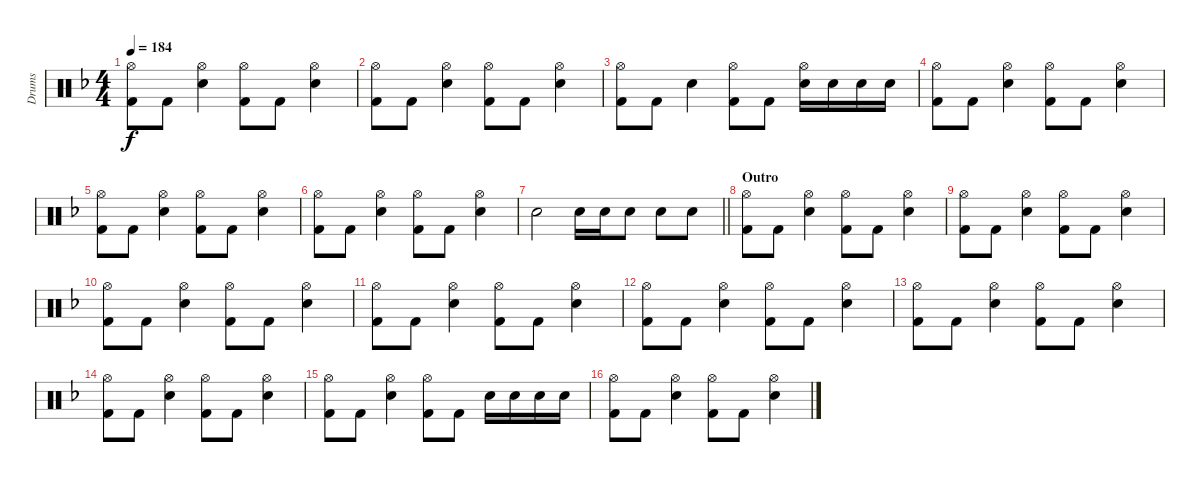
\track ("Drums" "Drums") {instrument percussion}
\staff {score}
\articulation defaults
\ts (4 4)
\tempo 184
\clef neutral
\ks f
("Hi-Hat (open)" "Kick (hit) 2").8{dy f} "Kick (hit) 2".8 ("Electric Snare (hit)" "Hi-Hat (open)").4 ("Hi-Hat (open)" "Kick (hit) 2").8 "Kick (hit) 2".8 ("Electric Snare (hit)" "Hi-Hat (open)").4 |
("Hi-Hat (open)" "Kick (hit) 2").8 "Kick (hit) 2".8 ("Electric Snare (hit)" "Hi-Hat (open)").4 ("Hi-Hat (open)" "Kick (hit) 2").8 "Kick (hit) 2".8 ("Electric Snare (hit)" "Hi-Hat (open)").4 |
("Hi-Hat (open)" "Kick (hit) 2").8 "Kick (hit) 2".8 "Electric Snare (hit)".4 ("Hi-Hat (open)" "Kick (hit) 2").8 "Kick (hit) 2".8 ("Electric Snare (hit)" "Hi-Hat (open)").16 "Electric Snare (hit)".16 "Electric Snare (hit)".16 "Electric Snare (hit)".16 |
("Hi-Hat (open)" "Kick (hit) 2").8 "Kick (hit) 2".8 ("Electric Snare (hit)" "Hi-Hat (open)").4 ("Hi-Hat (open)" "Kick (hit) 2").8 "Kick (hit) 2".8 ("Electric Snare (hit)" "Hi-Hat (open)").4 |
("Hi-Hat (open)" "Kick (hit) 2").8 "Kick (hit) 2".8 ("Electric Snare (hit)" "Hi-Hat (open)").4 ("Hi-Hat (open)" "Kick (hit) 2").8 "Kick (hit) 2".8 ("Electric Snare (hit)" "Hi-Hat (open)").4 |
("Hi-Hat (open)" "Kick (hit) 2").8 "Kick (hit) 2".8 ("Electric Snare (hit)" "Hi-Hat (open)").4 ("Hi-Hat (open)" "Kick (hit) 2").8 "Kick (hit) 2".8 ("Electric Snare (hit)" "Hi-Hat (open)").4 |
\barLineRight lightlight "Electric Snare (hit)".2 "Electric Snare (hit)".16 "Electric Snare (hit)".16 "Electric Snare (hit)".8 "Electric Snare (hit)".8 "Electric Snare (hit)".8
|
\section ("" "Outro")
("Hi-Hat (open)" "Kick (hit) 2").8 "Kick (hit) 2".8 ("Electric Snare (hit)" "Hi-Hat (open)").4 ("Hi-Hat (open)" "Kick (hit) 2").8 "Kick (hit) 2".8 ("Electric Snare (hit)" "Hi-Hat (open)").4 |
("Hi-Hat (open)" "Kick (hit) 2").8 "Kick (hit) 2".8 ("Electric Snare (hit)" "Hi-Hat (open)").4 ("Hi-Hat (open)" "Kick (hit) 2").8 "Kick (hit) 2".8 ("Electric Snare (hit)" "Hi-Hat (open)").4 |
("Hi-Hat (open)" "Kick (hit) 2").8 "Kick (hit) 2".8 ("Electric Snare (hit)" "Hi-Hat (open)").4 ("Hi-Hat (open)" "Kick (hit) 2").8 "Kick (hit) 2".8 ("Electric Snare (hit)" "Hi-Hat (open)").4 |
("Hi-Hat (open)" "Kick (hit) 2").8 "Kick (hit) 2".8 ("Electric Snare (hit)" "Hi-Hat (open)").4 ("Hi-Hat (open)" "Kick (hit) 2").8 "Kick (hit) 2".8 ("Electric Snare (hit)" "Hi-Hat (open)").4 |
("Hi-Hat (open)" "Kick (hit) 2").8 "Kick (hit) 2".8 ("Electric Snare (hit)" "Hi-Hat (open)").4 ("Hi-Hat (open)" "Kick (hit) 2").8 "Kick (hit) 2".8 ("Electric Snare (hit)" "Hi-Hat (open)").4 |
("Hi-Hat (open)" "Kick (hit) 2").8 "Kick (hit) 2".8 ("Electric Snare (hit)" "Hi-Hat (open)").4 ("Hi-Hat (open)" "Kick (hit) 2").8 "Kick (hit) 2".8 ("Electric Snare (hit)" "Hi-Hat (open)").4 |
("Hi-Hat (open)" "Kick (hit) 2").8 "Kick (hit) 2".8 ("Electric Snare (hit)" "Hi-Hat (open)").4 ("Hi-Hat (open)" "Kick (hit) 2").8 "Kick (hit) 2".8 ("Electric Snare (hit)" "Hi-Hat (open)").4 |
("Hi-Hat (open)" "Kick (hit) 2").8 "Kick (hit) 2".8 ("Electric Snare (hit)" "Hi-Hat (open)").4 ("Hi-Hat (open)" "Kick (hit) 2").8 "Kick (hit) 2".8 "Electric Snare (hit)".16 "Electric Snare (hit)".16 "Electric Snare (hit)".16 "Electric Snare (hit)".16 |
("Hi-Hat (open)" "Kick (hit) 2").8 "Kick (hit) 2".8 ("Electric Snare (hit)" "Hi-Hat (open)").4 ("Hi-Hat (open)" "Kick (hit) 2").8 "Kick (hit) 2".8 ("Electric Snare (hit)" "Hi-Hat (open)").4
